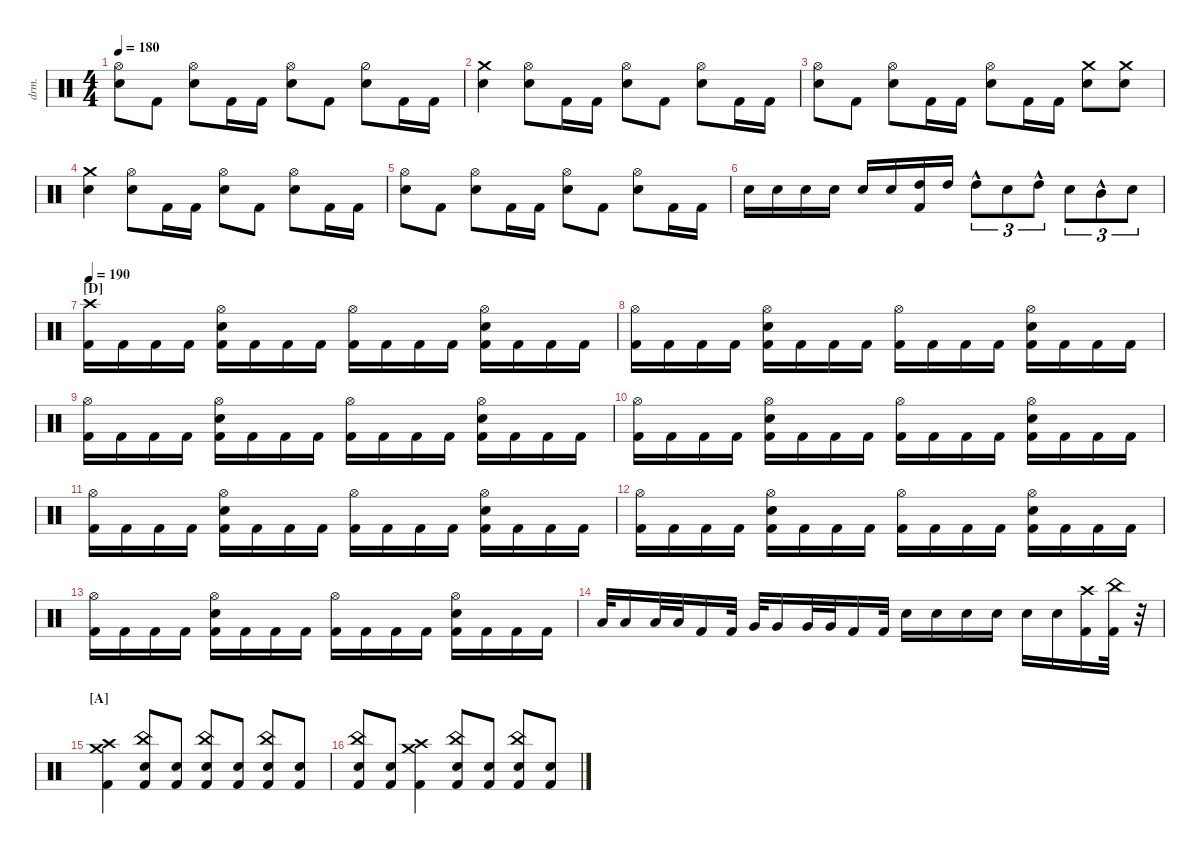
\defaultSystemsLayout 4
\hideDynamics
\bracketExtendMode nobrackets
\otherSystemsTrackNameOrientation horizontal
\track ("Drumkit" "drm.") {instrument percussion}
\staff {score}
\articulation defaults
\ts (4 4)
\tempo 180
\clef neutral
\ks c
("Snare (hit) 2" "Hi-Hat (open)").8{dy mf beam Down} "Kick (hit) 2".8{beam Down} ("Snare (hit) 2" "Hi-Hat (open)").8{beam Down} "Kick (hit) 2".16{beam Down} "Kick (hit) 2".16{beam Down} ("Snare (hit) 2" "Hi-Hat (open)").8{beam Down} "Kick (hit) 2".8{beam Down} ("Snare (hit) 2" "Hi-Hat (half)").8{beam Down} "Kick (hit) 2".16{beam Down} "Kick (hit) 2".16{beam Down} |
("Snare (hit) 2" "Crash medium (hit)").4{beam Down} ("Snare (hit) 2" "Hi-Hat (open)").8{beam Down} "Kick (hit) 2".16{beam Down} "Kick (hit) 2".16{beam Down} ("Snare (hit) 2" "Hi-Hat (open)").8{beam Down} "Kick (hit) 2".8{beam Down} ("Snare (hit) 2" "Hi-Hat (open)").8{beam Down} "Kick (hit) 2".16{beam Down} "Kick (hit) 2".16{beam Down} |
("Snare (hit) 2" "Hi-Hat (open)").8{beam Down} "Kick (hit) 2".8{beam Down} ("Snare (hit) 2" "Hi-Hat (open)").8{beam Down} "Kick (hit) 2".16{beam Down} "Kick (hit) 2".16{beam Down} ("Snare (hit) 2" "Hi-Hat (open)").8{beam Down} "Kick (hit) 2".16{beam Down} "Kick (hit) 2".16{beam Down} ("Snare (hit) 2" "Crash medium (hit)").8{beam Down} ("Snare (hit) 2" "Crash medium (hit)").8{beam Down} |
("Snare (hit) 2" "Crash medium (hit)").4{beam Down} ("Snare (hit) 2" "Hi-Hat (open)").8{beam Down} "Kick (hit) 2".16{beam Down} "Kick (hit) 2".16{beam Down} ("Snare (hit) 2" "Hi-Hat (open)").8{beam Down} "Kick (hit) 2".8{beam Down} ("Snare (hit) 2" "Hi-Hat (open)").8{beam Down} "Kick (hit) 2".16{beam Down} "Kick (hit) 2".16{beam Down} |
("Snare (hit) 2" "Hi-Hat (open)").8{beam Down} "Kick (hit) 2".8{beam Down} ("Snare (hit) 2" "Hi-Hat (open)").8{beam Down} "Kick (hit) 2".16{beam Down} "Kick (hit) 2".16{beam Down} ("Snare (hit) 2" "Hi-Hat (open)").8{beam Down} "Kick (hit) 2".8{beam Down} ("Snare (hit) 2" "Hi-Hat (open)").8{beam Down} "Kick (hit) 2".16{beam Down} "Kick (hit) 2".16{beam Down} |
"Snare (hit) 2".16{beam Down} "Snare (hit) 2".16{beam Down} "Snare (hit) 2".16{beam Down} "Snare (hit) 2".16{beam Down} "Snare (hit) 2".16{beam Up} "Snare (hit) 2".16{beam Up} ("Kick (hit) 2" "High Tom (hit)").16{beam Up} "High Tom (hit)".16{beam Up} "High Tom (hit)"{hac}.8{tu (3 2) beam Down} "Snare (hit) 2".8{tu (3 2) beam Down} "High Tom (hit)"{hac}.8{tu (3 2) beam Down} "Snare (hit) 2".8{tu (3 2) beam Down} "Mid Tom (hit)"{hac}.8{tu (3 2) beam Down} "Snare (hit) 2".8{tu (3 2) beam Down} |
\section ("D" "")
\tempo 190
("Crash high (hit)" "Kick (hit) 2").16{beam Down} "Kick (hit) 2".16{beam Down} "Kick (hit) 2".16{beam Down} "Kick (hit) 2".16{beam Down} ("Kick (hit) 2" "Snare (hit) 2" "Hi-Hat (open)").16{beam Down} "Kick (hit) 2".16{beam Down} "Kick (hit) 2".16{beam Down} "Kick (hit) 2".16{beam Down} ("Kick (hit) 2" "Hi-Hat (open)").16{beam Down} "Kick (hit) 2".16{beam Down} "Kick (hit) 2".16{beam Down} "Kick (hit) 2".16{beam Down} ("Kick (hit) 2" "Snare (hit) 2" "Hi-Hat (open)").16{beam Down} "Kick (hit) 2".16{beam Down} "Kick (hit) 2".16{beam Down} "Kick (hit) 2".16{beam Down} |
("Kick (hit) 2" "Hi-Hat (open)").16{beam Down} "Kick (hit) 2".16{beam Down} "Kick (hit) 2".16{beam Down} "Kick (hit) 2".16{beam Down} ("Kick (hit) 2" "Snare (hit) 2" "Hi-Hat (open)").16{beam Down} "Kick (hit) 2".16{beam Down} "Kick (hit) 2".16{beam Down} "Kick (hit) 2".16{beam Down} ("Kick (hit) 2" "Hi-Hat (open)").16{beam Down} "Kick (hit) 2".16{beam Down} "Kick (hit) 2".16{beam Down} "Kick (hit) 2".16{beam Down} ("Kick (hit) 2" "Snare (hit) 2" "Hi-Hat (open)").16{beam Down} "Kick (hit) 2".16{beam Down} "Kick (hit) 2".16{beam Down} "Kick (hit) 2".16{beam Down} |
("Kick (hit) 2" "Hi-Hat (open)").16{beam Down} "Kick (hit) 2".16{beam Down} "Kick (hit) 2".16{beam Down} "Kick (hit) 2".16{beam Down} ("Kick (hit) 2" "Snare (hit) 2" "Hi-Hat (open)").16{beam Down} "Kick (hit) 2".16{beam Down} "Kick (hit) 2".16{beam Down} "Kick (hit) 2".16{beam Down} ("Kick (hit) 2" "Hi-Hat (open)").16{beam Down} "Kick (hit) 2".16{beam Down} "Kick (hit) 2".16{beam Down} "Kick (hit) 2".16{beam Down} ("Kick (hit) 2" "Snare (hit) 2" "Hi-Hat (open)").16{beam Down} "Kick (hit) 2".16{beam Down} "Kick (hit) 2".16{beam Down} "Kick (hit) 2".16{beam Down} |
("Kick (hit) 2" "Hi-Hat (open)").16{beam Down} "Kick (hit) 2".16{beam Down} "Kick (hit) 2".16{beam Down} "Kick (hit) 2".16{beam Down} ("Kick (hit) 2" "Snare (hit) 2" "Hi-Hat (open)").16{beam Down} "Kick (hit) 2".16{beam Down} "Kick (hit) 2".16{beam Down} "Kick (hit) 2".16{beam Down} ("Kick (hit) 2" "Hi-Hat (open)").16{beam Down} "Kick (hit) 2".16{beam Down} "Kick (hit) 2".16{beam Down} "Kick (hit) 2".16{beam Down} ("Kick (hit) 2" "Snare (hit) 2" "Hi-Hat (open)").16{beam Down} "Kick (hit) 2".16{beam Down} "Kick (hit) 2".16{beam Down} "Kick (hit) 2".16{beam Down} |
("Kick (hit) 2" "Hi-Hat (open)").16{beam Down} "Kick (hit) 2".16{beam Down} "Kick (hit) 2".16{beam Down} "Kick (hit) 2".16{beam Down} ("Kick (hit) 2" "Snare (hit) 2" "Hi-Hat (open)").16{beam Down} "Kick (hit) 2".16{beam Down} "Kick (hit) 2".16{beam Down} "Kick (hit) 2".16{beam Down} ("Kick (hit) 2" "Hi-Hat (open)").16{beam Down} "Kick (hit) 2".16{beam Down} "Kick (hit) 2".16{beam Down} "Kick (hit) 2".16{beam Down} ("Kick (hit) 2" "Snare (hit) 2" "Hi-Hat (open)").16{beam Down} "Kick (hit) 2".16{beam Down} "Kick (hit) 2".16{beam Down} "Kick (hit) 2".16{beam Down} |
("Kick (hit) 2" "Hi-Hat (open)").16{beam Down} "Kick (hit) 2".16{beam Down} "Kick (hit) 2".16{beam Down} "Kick (hit) 2".16{beam Down} ("Kick (hit) 2" "Snare (hit) 2" "Hi-Hat (open)").16{beam Down} "Kick (hit) 2".16{beam Down} "Kick (hit) 2".16{beam Down} "Kick (hit) 2".16{beam Down} ("Kick (hit) 2" "Hi-Hat (open)").16{beam Down} "Kick (hit) 2".16{beam Down} "Kick (hit) 2".16{beam Down} "Kick (hit) 2".16{beam Down} ("Kick (hit) 2" "Snare (hit) 2" "Hi-Hat (open)").16{beam Down} "Kick (hit) 2".16{beam Down} "Kick (hit) 2".16{beam Down} "Kick (hit) 2".16{beam Down} |
("Kick (hit) 2" "Hi-Hat (open)").16{beam Down} "Kick (hit) 2".16{beam Down} "Kick (hit) 2".16{beam Down} "Kick (hit) 2".16{beam Down} ("Kick (hit) 2" "Snare (hit) 2" "Hi-Hat (open)").16{beam Down} "Kick (hit) 2".16{beam Down} "Kick (hit) 2".16{beam Down} "Kick (hit) 2".16{beam Down} ("Kick (hit) 2" "Hi-Hat (open)").16{beam Down} "Kick (hit) 2".16{beam Down} "Kick (hit) 2".16{beam Down} "Kick (hit) 2".16{beam Down} ("Kick (hit) 2" "Snare (hit) 2" "Hi-Hat (open)").16{beam Down} "Kick (hit) 2".16{beam Down} "Kick (hit) 2".16{beam Down} "Kick (hit) 2".16{beam Down} |
"Low Tom (hit)".32{beam Up} "Low Tom (hit)".16{beam Up} "Low Tom (hit)".32{beam Up} "Low Tom (hit)".32{beam Up} "Kick (hit) 2".16{beam Up} "Kick (hit) 2".32{beam Up} "Very Low Tom (hit)".32{beam Up} "Very Low Tom (hit)".16{beam Up} "Very Low Tom (hit)".32{beam Up} "Very Low Tom (hit)".32{beam Up} "Kick (hit) 2".16{beam Up} "Kick (hit) 2".32{beam Up} "Snare (hit) 2".16{beam Down} "Snare (hit) 2".16{beam Down} "Snare (hit) 2".16{beam Down} "Snare (hit) 2".16{beam Down} "Snare (hit) 2".16{beam Down} "Snare (hit) 2".16{beam Down} ("Kick (hit) 2" "Crash high (hit)"{acc #}).16{beam Down} ("Kick (hit) 2" "China (hit)").32{beam Down} r.32{beam Down} |
\section ("A" "")
("Kick (hit) 2" "Crash high (hit)" "Crash medium (hit)").4{beam Down} ("Kick (hit) 2" "Snare (hit) 2" "China (hit)").8{beam Up} ("Kick (hit) 2" "Snare (hit) 2").8{beam Up} ("Kick (hit) 2" "Snare (hit) 2" "China (hit)").8{beam Up} ("Kick (hit) 2" "Snare (hit) 2").8{beam Up} ("Kick (hit) 2" "Snare (hit) 2" "China (hit)").8{beam Up} ("Kick (hit) 2" "Snare (hit) 2").8{beam Up} |
("Kick (hit) 2" "Snare (hit) 2" "China (hit)").8{beam Up} ("Kick (hit) 2" "Snare (hit) 2").8{beam Up} ("Kick (hit) 2" "Crash high (hit)" "Crash medium (hit)").4{beam Down} ("Kick (hit) 2" "Snare (hit) 2" "China (hit)").8{beam Up} ("Kick (hit) 2" "Snare (hit) 2").8{beam Up} ("Kick (hit) 2" "Snare (hit) 2" "China (hit)").8{beam Up} ("Kick (hit) 2" "Snare (hit) 2").8{beam Up}
